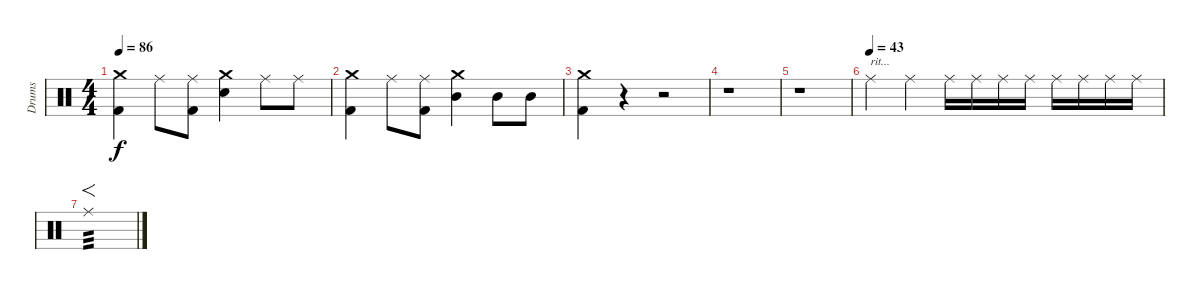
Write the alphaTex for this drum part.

\track ("Drums" "Drums") {instrument percussion}
\staff {score}
\articulation defaults
\ts (4 4)
\tempo 86
\clef neutral
\ks aminor
("Crash medium (hit)" "Kick (hit) 2").4{dy f} "Ride (middle)".8 ("Ride (middle)" "Kick (hit) 2").8 ("Crash medium (hit)" "Electric Snare (hit)").4 "Ride (middle)".8 "Ride (middle)".8 |
("Crash medium (hit)" "Kick (hit) 2").4 "Ride (middle)".8 ("Ride (middle)" "Kick (hit) 2").8 ("Crash medium (hit)" "Mid Tom (hit)").4 "Mid Tom (hit)".8 "Mid Tom (hit)".8 |
("Crash medium (hit)" "Kick (hit) 2").4 r.4 r.2 |
r.1 |
r.1 |
\tempo (43)
"Ride (middle)".4{txt "rit..."} "Ride (middle)".4 "Ride (middle)".16 "Ride (middle)".16 "Ride (middle)".16 "Ride (middle)".16 "Ride (middle)".16 "Ride (middle)".16 "Ride (middle)".16 "Ride (middle)".16 |
"Ride (middle)".1{f tp 3}
